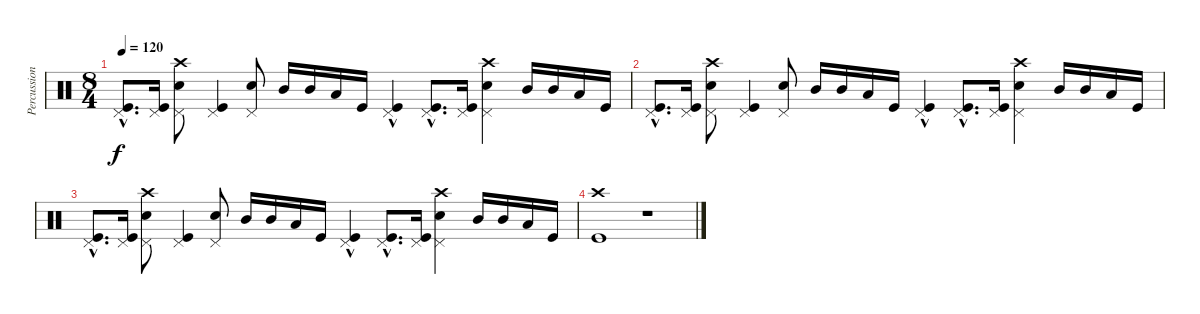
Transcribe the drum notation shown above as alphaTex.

\track ("Percussion" "Percussion") {instrument percussion}
\staff {score}
\articulation defaults
\ts (8 4)
\tempo 120
\clef neutral
\ks c
("Kick (hit)"{hac} "Pedal Hi-Hat (hit)"{hac}).8{d dy f} ("Pedal Hi-Hat (hit)" "Kick (hit)").16 ("Electric Snare (hit)" "Crash high (hit)" "Pedal Hi-Hat (hit)").8 ("Kick (hit)" "Pedal Hi-Hat (hit)").4 ("Pedal Hi-Hat (hit)" "Electric Snare (hit)").8 "Mid Tom (hit)".16 "Mid Tom (hit)".16 "Low Tom (hit)".16 "Kick (hit)".16 ("Pedal Hi-Hat (hit)"{hac} "Kick (hit)").4 ("Pedal Hi-Hat (hit)"{hac} "Kick (hit)"{hac}).8{d} ("Pedal Hi-Hat (hit)" "Kick (hit)").16 ("Crash high (hit)" "Pedal Hi-Hat (hit)" "Electric Snare (hit)").4 "Mid Tom (hit)".16 "Mid Tom (hit)".16 "Low Tom (hit)".16 "Kick (hit)".16 |
("Kick (hit)"{hac} "Pedal Hi-Hat (hit)"{hac}).8{d} ("Pedal Hi-Hat (hit)" "Kick (hit)").16 ("Electric Snare (hit)" "Crash high (hit)" "Pedal Hi-Hat (hit)").8 ("Kick (hit)" "Pedal Hi-Hat (hit)").4 ("Pedal Hi-Hat (hit)" "Electric Snare (hit)").8 "Mid Tom (hit)".16 "Mid Tom (hit)".16 "Low Tom (hit)".16 "Kick (hit)".16 ("Pedal Hi-Hat (hit)"{hac} "Kick (hit)").4 ("Pedal Hi-Hat (hit)"{hac} "Kick (hit)"{hac}).8{d} ("Pedal Hi-Hat (hit)" "Kick (hit)").16 ("Crash high (hit)" "Pedal Hi-Hat (hit)" "Electric Snare (hit)").4 "Mid Tom (hit)".16 "Mid Tom (hit)".16 "Low Tom (hit)".16 "Kick (hit)".16 |
("Kick (hit)"{hac} "Pedal Hi-Hat (hit)"{hac}).8{d} ("Pedal Hi-Hat (hit)" "Kick (hit)").16 ("Electric Snare (hit)" "Crash high (hit)" "Pedal Hi-Hat (hit)").8 ("Kick (hit)" "Pedal Hi-Hat (hit)").4 ("Pedal Hi-Hat (hit)" "Electric Snare (hit)").8 "Mid Tom (hit)".16 "Mid Tom (hit)".16 "Low Tom (hit)".16 "Kick (hit)".16 ("Pedal Hi-Hat (hit)"{hac} "Kick (hit)").4 ("Pedal Hi-Hat (hit)"{hac} "Kick (hit)"{hac}).8{d} ("Pedal Hi-Hat (hit)" "Kick (hit)").16 ("Crash high (hit)" "Pedal Hi-Hat (hit)" "Electric Snare (hit)").4 "Mid Tom (hit)".16 "Mid Tom (hit)".16 "Low Tom (hit)".16 "Kick (hit)".16 |
("Kick (hit)" "Crash high (hit)").1 r.1
